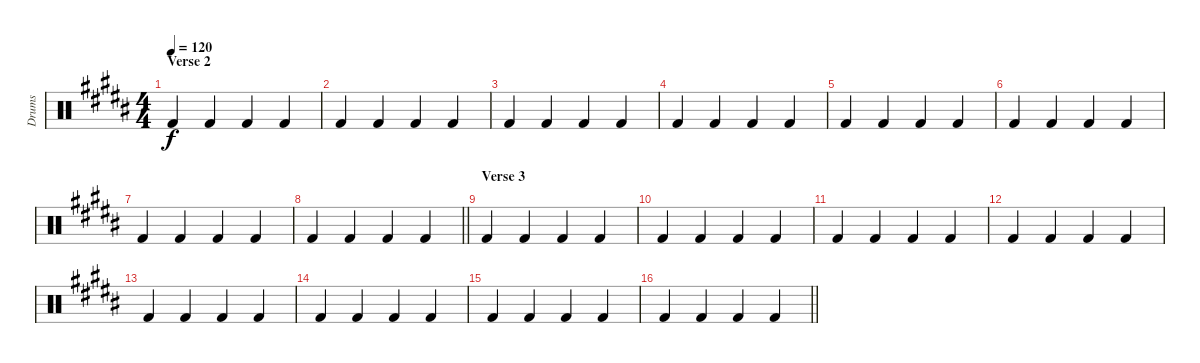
\track ("Drums" "Drums") {instrument percussion}
\staff {score}
\articulation defaults
\ts (4 4)
\section ("" "Verse 2")
\tempo 120
\clef neutral
\ks b "Kick (hit) 2".4{dy f} "Kick (hit) 2".4 "Kick (hit) 2".4 "Kick (hit) 2".4
|
"Kick (hit) 2".4 "Kick (hit) 2".4 "Kick (hit) 2".4 "Kick (hit) 2".4 |
"Kick (hit) 2".4 "Kick (hit) 2".4 "Kick (hit) 2".4 "Kick (hit) 2".4 |
"Kick (hit) 2".4 "Kick (hit) 2".4 "Kick (hit) 2".4 "Kick (hit) 2".4 |
"Kick (hit) 2".4 "Kick (hit) 2".4 "Kick (hit) 2".4 "Kick (hit) 2".4 |
"Kick (hit) 2".4 "Kick (hit) 2".4 "Kick (hit) 2".4 "Kick (hit) 2".4 |
"Kick (hit) 2".4 "Kick (hit) 2".4 "Kick (hit) 2".4 "Kick (hit) 2".4 |
\barLineRight lightlight "Kick (hit) 2".4 "Kick (hit) 2".4 "Kick (hit) 2".4 "Kick (hit) 2".4
|
\section ("" "Verse 3")
"Kick (hit) 2".4 "Kick (hit) 2".4 "Kick (hit) 2".4 "Kick (hit) 2".4 |
"Kick (hit) 2".4 "Kick (hit) 2".4 "Kick (hit) 2".4 "Kick (hit) 2".4 |
"Kick (hit) 2".4 "Kick (hit) 2".4 "Kick (hit) 2".4 "Kick (hit) 2".4 |
"Kick (hit) 2".4 "Kick (hit) 2".4 "Kick (hit) 2".4 "Kick (hit) 2".4 |
"Kick (hit) 2".4 "Kick (hit) 2".4 "Kick (hit) 2".4 "Kick (hit) 2".4 |
"Kick (hit) 2".4 "Kick (hit) 2".4 "Kick (hit) 2".4 "Kick (hit) 2".4 |
"Kick (hit) 2".4 "Kick (hit) 2".4 "Kick (hit) 2".4 "Kick (hit) 2".4 |
\barLineRight lightlight "Kick (hit) 2".4 "Kick (hit) 2".4 "Kick (hit) 2".4 "Kick (hit) 2".4
